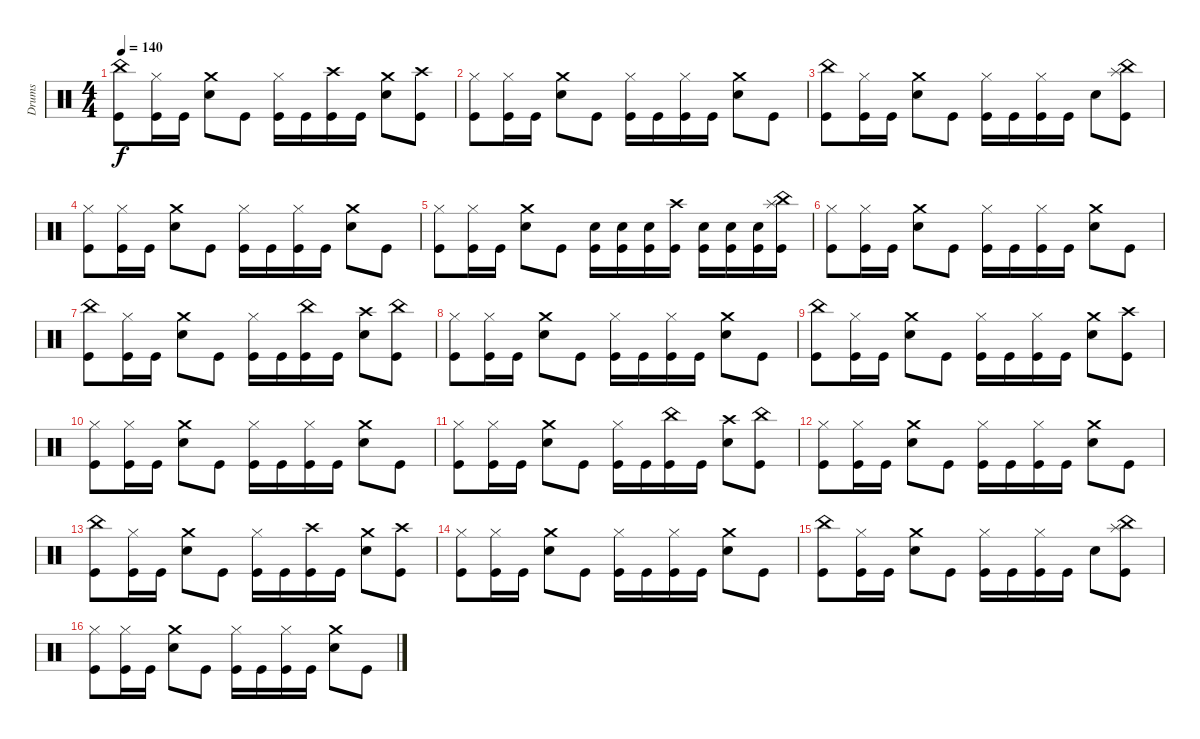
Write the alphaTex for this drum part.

\track ("Drums" "Drums") {instrument percussion}
\staff {score}
\articulation defaults
\ts (4 4)
\tempo 140
\clef neutral
\ks c
("China (hit)" "Kick (hit)").8{dy f} ("Hi-Hat (closed)" "Kick (hit)").16 "Kick (hit)".16 ("Crash medium (hit)" "Electric Snare (hit)").8 "Kick (hit)".8 ("Hi-Hat (closed)" "Kick (hit)").16 "Kick (hit)".16 ("Crash high (hit)" "Kick (hit)").16 "Kick (hit)".16 ("Crash medium (hit)" "Electric Snare (hit)").8 ("Crash high (hit)" "Kick (hit)").8 |
("Hi-Hat (closed)" "Kick (hit)").8 ("Hi-Hat (closed)" "Kick (hit)").16 "Kick (hit)".16 ("Crash medium (hit)" "Electric Snare (hit)").8 "Kick (hit)".8 ("Hi-Hat (closed)" "Kick (hit)").16 "Kick (hit)".16 ("Hi-Hat (closed)" "Kick (hit)").16 "Kick (hit)".16 ("Crash medium (hit)" "Electric Snare (hit)").8 "Kick (hit)".8 |
("China (hit)" "Kick (hit)").8 ("Hi-Hat (closed)" "Kick (hit)").16 "Kick (hit)".16 ("Crash medium (hit)" "Electric Snare (hit)").8 "Kick (hit)".8 ("Hi-Hat (closed)" "Kick (hit)").16 "Kick (hit)".16 ("Hi-Hat (closed)" "Kick (hit)").16 "Kick (hit)".16 "Electric Snare (hit)".8 ("China (hit)" "Splash (hit)" "Kick (hit)").8 |
("Hi-Hat (closed)" "Kick (hit)").8 ("Hi-Hat (closed)" "Kick (hit)").16 "Kick (hit)".16 ("Crash medium (hit)" "Electric Snare (hit)").8 "Kick (hit)".8 ("Hi-Hat (closed)" "Kick (hit)").16 "Kick (hit)".16 ("Hi-Hat (closed)" "Kick (hit)").16 "Kick (hit)".16 ("Crash medium (hit)" "Electric Snare (hit)").8 "Kick (hit)".8 |
("Hi-Hat (closed)" "Kick (hit)").8 ("Hi-Hat (closed)" "Kick (hit)").16 "Kick (hit)".16 ("Crash medium (hit)" "Electric Snare (hit)").8 "Kick (hit)".8 ("Electric Snare (hit)" "Kick (hit)").16 ("Electric Snare (hit)" "Kick (hit)").16 ("Electric Snare (hit)" "Kick (hit)").16 ("Crash high (hit)" "Kick (hit)").16 ("Electric Snare (hit)" "Kick (hit)").16 ("Electric Snare (hit)" "Kick (hit)").16 ("Electric Snare (hit)" "Kick (hit)").16 ("Splash (hit)" "China (hit)" "Kick (hit)").16 |
("Hi-Hat (closed)" "Kick (hit)").8 ("Hi-Hat (closed)" "Kick (hit)").16 "Kick (hit)".16 ("Crash medium (hit)" "Electric Snare (hit)").8 "Kick (hit)".8 ("Hi-Hat (closed)" "Kick (hit)").16 "Kick (hit)".16 ("Hi-Hat (closed)" "Kick (hit)").16 "Kick (hit)".16 ("Crash medium (hit)" "Electric Snare (hit)").8 "Kick (hit)".8 |
("China (hit)" "Kick (hit)").8 ("Hi-Hat (closed)" "Kick (hit)").16 "Kick (hit)".16 ("Crash medium (hit)" "Electric Snare (hit)").8 "Kick (hit)".8 ("Hi-Hat (closed)" "Kick (hit)").16 "Kick (hit)".16 ("China (hit)" "Kick (hit)").16 "Kick (hit)".16 ("Crash high (hit)" "Electric Snare (hit)").8 ("China (hit)" "Kick (hit)").8 |
("Hi-Hat (closed)" "Kick (hit)").8 ("Hi-Hat (closed)" "Kick (hit)").16 "Kick (hit)".16 ("Crash medium (hit)" "Electric Snare (hit)").8 "Kick (hit)".8 ("Hi-Hat (closed)" "Kick (hit)").16 "Kick (hit)".16 ("Hi-Hat (closed)" "Kick (hit)").16 "Kick (hit)".16 ("Crash medium (hit)" "Electric Snare (hit)").8 "Kick (hit)".8 |
("China (hit)" "Kick (hit)").8 ("Hi-Hat (closed)" "Kick (hit)").16 "Kick (hit)".16 ("Crash medium (hit)" "Electric Snare (hit)").8 "Kick (hit)".8 ("Hi-Hat (closed)" "Kick (hit)").16 "Kick (hit)".16 ("Hi-Hat (closed)" "Kick (hit)").16 "Kick (hit)".16 ("Crash medium (hit)" "Electric Snare (hit)").8 ("Crash high (hit)" "Kick (hit)").8 |
("Hi-Hat (closed)" "Kick (hit)").8 ("Hi-Hat (closed)" "Kick (hit)").16 "Kick (hit)".16 ("Crash medium (hit)" "Electric Snare (hit)").8 "Kick (hit)".8 ("Hi-Hat (closed)" "Kick (hit)").16 "Kick (hit)".16 ("Hi-Hat (closed)" "Kick (hit)").16 "Kick (hit)".16 ("Crash medium (hit)" "Electric Snare (hit)").8 "Kick (hit)".8 |
("Hi-Hat (closed)" "Kick (hit)").8 ("Hi-Hat (closed)" "Kick (hit)").16 "Kick (hit)".16 ("Crash medium (hit)" "Electric Snare (hit)").8 "Kick (hit)".8 ("Hi-Hat (closed)" "Kick (hit)").16 "Kick (hit)".16 ("China (hit)" "Kick (hit)").16 "Kick (hit)".16 ("Crash high (hit)" "Electric Snare (hit)").8 ("China (hit)" "Kick (hit)").8 |
("Hi-Hat (closed)" "Kick (hit)").8 ("Hi-Hat (closed)" "Kick (hit)").16 "Kick (hit)".16 ("Crash medium (hit)" "Electric Snare (hit)").8 "Kick (hit)".8 ("Hi-Hat (closed)" "Kick (hit)").16 "Kick (hit)".16 ("Hi-Hat (closed)" "Kick (hit)").16 "Kick (hit)".16 ("Crash medium (hit)" "Electric Snare (hit)").8 "Kick (hit)".8 |
("China (hit)" "Kick (hit)").8 ("Hi-Hat (closed)" "Kick (hit)").16 "Kick (hit)".16 ("Crash medium (hit)" "Electric Snare (hit)").8 "Kick (hit)".8 ("Hi-Hat (closed)" "Kick (hit)").16 "Kick (hit)".16 ("Crash high (hit)" "Kick (hit)").16 "Kick (hit)".16 ("Crash medium (hit)" "Electric Snare (hit)").8 ("Crash high (hit)" "Kick (hit)").8 |
("Hi-Hat (closed)" "Kick (hit)").8 ("Hi-Hat (closed)" "Kick (hit)").16 "Kick (hit)".16 ("Crash medium (hit)" "Electric Snare (hit)").8 "Kick (hit)".8 ("Hi-Hat (closed)" "Kick (hit)").16 "Kick (hit)".16 ("Hi-Hat (closed)" "Kick (hit)").16 "Kick (hit)".16 ("Crash medium (hit)" "Electric Snare (hit)").8 "Kick (hit)".8 |
("China (hit)" "Kick (hit)").8 ("Hi-Hat (closed)" "Kick (hit)").16 "Kick (hit)".16 ("Crash medium (hit)" "Electric Snare (hit)").8 "Kick (hit)".8 ("Hi-Hat (closed)" "Kick (hit)").16 "Kick (hit)".16 ("Hi-Hat (closed)" "Kick (hit)").16 "Kick (hit)".16 "Electric Snare (hit)".8 ("China (hit)" "Splash (hit)" "Kick (hit)").8 |
("Hi-Hat (closed)" "Kick (hit)").8 ("Hi-Hat (closed)" "Kick (hit)").16 "Kick (hit)".16 ("Crash medium (hit)" "Electric Snare (hit)").8 "Kick (hit)".8 ("Hi-Hat (closed)" "Kick (hit)").16 "Kick (hit)".16 ("Hi-Hat (closed)" "Kick (hit)").16 "Kick (hit)".16 ("Crash medium (hit)" "Electric Snare (hit)").8 "Kick (hit)".8
